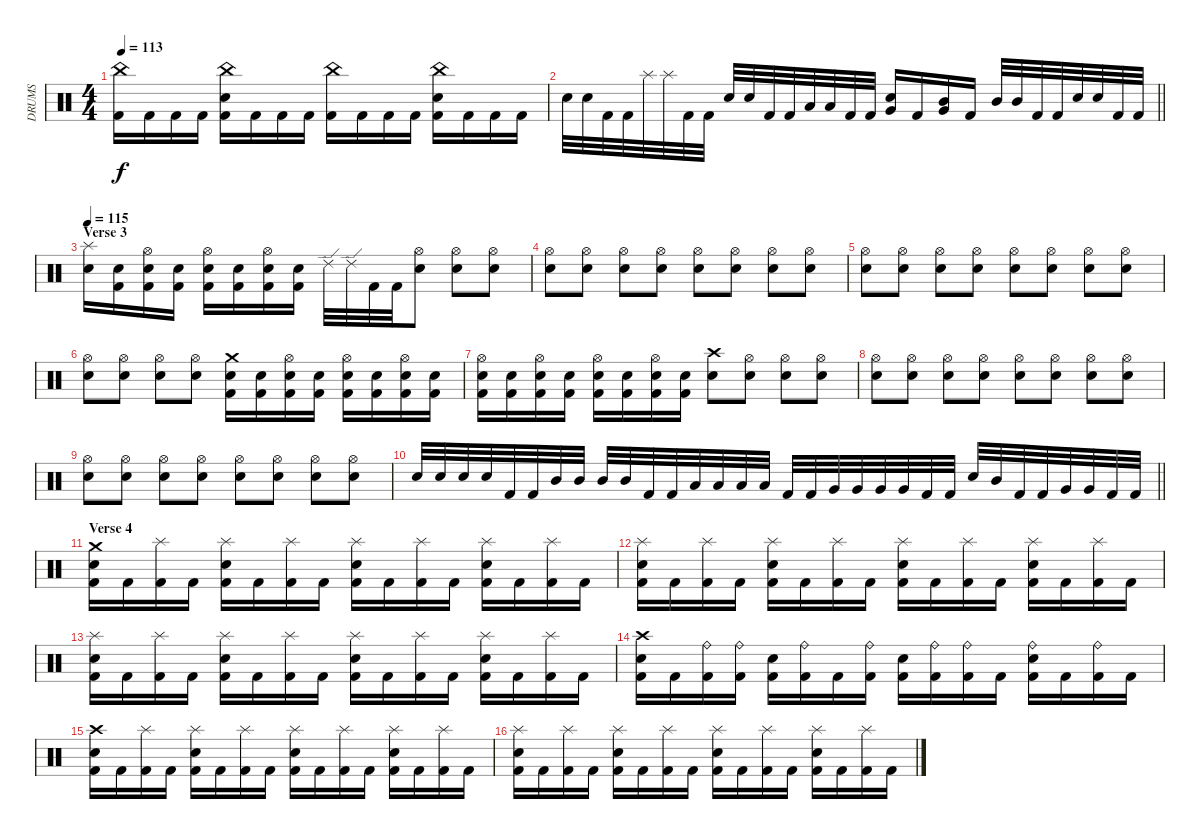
\track ("DRUMS" "DRUMS") {instrument percussion}
\staff {score}
\articulation defaults
\ts (4 4)
\tempo 113
\clef neutral
\ks c
("China (hit)" "Kick (hit) 2").16{dy f} "Kick (hit) 2".16 "Kick (hit) 2".16 "Kick (hit) 2".16 ("China (hit)" "Electric Snare (hit)" "Kick (hit) 2").16 "Kick (hit) 2".16 "Kick (hit) 2".16 "Kick (hit) 2".16 ("China (hit)" "Kick (hit) 2").16 "Kick (hit) 2".16 "Kick (hit) 2".16 "Kick (hit) 2".16 ("China (hit)" "Electric Snare (hit)" "Kick (hit) 2").16 "Kick (hit) 2".16 "Kick (hit) 2".16 "Kick (hit) 2".16 |
\barLineRight lightlight "Electric Snare (hit)".32 "Electric Snare (hit)".32 "Kick (hit) 2".32 "Kick (hit) 2".32 "Splash (hit)".32 "Splash (hit)".32 "Kick (hit) 2".32 "Kick (hit) 2".32 "Electric Snare (hit)".32 "Electric Snare (hit)".32 "Kick (hit) 2".32 "Kick (hit) 2".32 "Low Tom (hit)".32 "Low Tom (hit)".32 "Kick (hit) 2".32 "Kick (hit) 2".32
("Electric Snare (hit)" "Very Low Tom (hit)").16 "Kick (hit) 2".16 ("Mid Tom (hit)" "Very Low Tom (hit)").16 "Kick (hit) 2".16 "Mid Tom (hit)".32 "Mid Tom (hit)".32 "Kick (hit) 2".32 "Kick (hit) 2".32 "Electric Snare (hit)".32 "Electric Snare (hit)".32 "Kick (hit) 2".32 "Kick (hit) 2".32 |
\section ("" "Verse 3")
\tempo 115
("Splash (hit)" "Electric Snare (hit)").16 ("Electric Snare (hit)" "Kick (hit) 2").16 ("Hi-Hat (open)" "Electric Snare (hit)" "Kick (hit) 2").16 ("Electric Snare (hit)" "Kick (hit) 2").16 ("Hi-Hat (open)" "Electric Snare (hit)" "Kick (hit) 2").16 ("Electric Snare (hit)" "Kick (hit) 2").16 ("Hi-Hat (open)" "Electric Snare (hit)" "Kick (hit) 2").16 ("Electric Snare (hit)" "Kick (hit) 2").16 "Ride (edge) 2".32 "Ride (edge) 2".32 "Kick (hit) 2".32 "Kick (hit) 2".32 ("Hi-Hat (open)" "Electric Snare (hit)").8 ("Hi-Hat (open)" "Electric Snare (hit)").8 ("Hi-Hat (open)" "Electric Snare (hit)").8 |
("Hi-Hat (open)" "Electric Snare (hit)").8 ("Hi-Hat (open)" "Electric Snare (hit)").8 ("Hi-Hat (open)" "Electric Snare (hit)").8 ("Hi-Hat (open)" "Electric Snare (hit)").8 ("Hi-Hat (open)" "Electric Snare (hit)").8 ("Hi-Hat (open)" "Electric Snare (hit)").8 ("Hi-Hat (open)" "Electric Snare (hit)").8 ("Hi-Hat (open)" "Electric Snare (hit)").8 |
("Hi-Hat (open)" "Electric Snare (hit)").8 ("Hi-Hat (open)" "Electric Snare (hit)").8 ("Hi-Hat (open)" "Electric Snare (hit)").8 ("Hi-Hat (open)" "Electric Snare (hit)").8 ("Hi-Hat (open)" "Electric Snare (hit)").8 ("Hi-Hat (open)" "Electric Snare (hit)").8 ("Hi-Hat (open)" "Electric Snare (hit)").8 ("Hi-Hat (open)" "Electric Snare (hit)").8 |
("Hi-Hat (open)" "Electric Snare (hit)").8 ("Hi-Hat (open)" "Electric Snare (hit)").8 ("Hi-Hat (open)" "Electric Snare (hit)").8 ("Hi-Hat (open)" "Electric Snare (hit)").8 ("Crash medium (hit)" "Electric Snare (hit)" "Kick (hit) 2").16 ("Electric Snare (hit)" "Kick (hit) 2").16 ("Hi-Hat (open)" "Electric Snare (hit)" "Kick (hit) 2").16 ("Electric Snare (hit)" "Kick (hit) 2").16 ("Hi-Hat (open)" "Electric Snare (hit)" "Kick (hit) 2").16 ("Electric Snare (hit)" "Kick (hit) 2").16 ("Hi-Hat (open)" "Electric Snare (hit)" "Kick (hit) 2").16 ("Electric Snare (hit)" "Kick (hit) 2").16 |
("Hi-Hat (open)" "Electric Snare (hit)" "Kick (hit) 2").16 ("Electric Snare (hit)" "Kick (hit) 2").16 ("Hi-Hat (open)" "Electric Snare (hit)" "Kick (hit) 2").16 ("Electric Snare (hit)" "Kick (hit) 2").16 ("Hi-Hat (open)" "Electric Snare (hit)" "Kick (hit) 2").16 ("Electric Snare (hit)" "Kick (hit) 2").16 ("Hi-Hat (open)" "Electric Snare (hit)" "Kick (hit) 2").16 ("Electric Snare (hit)" "Kick (hit) 2").16 ("Crash high (hit)" "Electric Snare (hit)").8 ("Hi-Hat (open)" "Electric Snare (hit)").8 ("Hi-Hat (open)" "Electric Snare (hit)").8 ("Hi-Hat (open)" "Electric Snare (hit)").8 |
("Hi-Hat (open)" "Electric Snare (hit)").8 ("Hi-Hat (open)" "Electric Snare (hit)").8 ("Hi-Hat (open)" "Electric Snare (hit)").8 ("Hi-Hat (open)" "Electric Snare (hit)").8 ("Hi-Hat (open)" "Electric Snare (hit)").8 ("Hi-Hat (open)" "Electric Snare (hit)").8 ("Hi-Hat (open)" "Electric Snare (hit)").8 ("Hi-Hat (open)" "Electric Snare (hit)").8 |
("Hi-Hat (open)" "Electric Snare (hit)").8 ("Hi-Hat (open)" "Electric Snare (hit)").8 ("Hi-Hat (open)" "Electric Snare (hit)").8 ("Hi-Hat (open)" "Electric Snare (hit)").8 ("Hi-Hat (open)" "Electric Snare (hit)").8 ("Hi-Hat (open)" "Electric Snare (hit)").8 ("Hi-Hat (open)" "Electric Snare (hit)").8 ("Hi-Hat (open)" "Electric Snare (hit)").8 |
\barLineRight lightlight "Electric Snare (hit)".32 "Electric Snare (hit)".32 "Electric Snare (hit)".32 "Electric Snare (hit)".32 "Kick (hit) 2".32 "Kick (hit) 2".32 "Mid Tom (hit)".32 "Mid Tom (hit)".32 "Mid Tom (hit)".32 "Mid Tom (hit)".32 "Kick (hit) 2".32 "Kick (hit) 2".32 "Low Tom (hit)".32 "Low Tom (hit)".32 "Low Tom (hit)".32 "Low Tom (hit)".32 "Kick (hit) 2".32 "Kick (hit) 2".32 "Very Low Tom (hit)".32 "Very Low Tom (hit)".32 "Very Low Tom (hit)".32 "Very Low Tom (hit)".32 "Kick (hit) 2".32 "Kick (hit) 2".32 "Electric Snare (hit)".32 "Mid Tom (hit)".32 "Kick (hit) 2".32 "Kick (hit) 2".32 "Very Low Tom (hit)".32 "Very Low Tom (hit)".32 "Kick (hit) 2".32 "Kick (hit) 2".32
|
\section ("" "Verse 4")
("Crash medium (hit)" "Electric Snare (hit)" "Kick (hit) 2").16 "Kick (hit) 2".16 ("Splash (hit)" "Kick (hit) 2").16 "Kick (hit) 2".16 ("Splash (hit)" "Electric Snare (hit)" "Kick (hit) 2").16 "Kick (hit) 2".16 ("Splash (hit)" "Kick (hit) 2").16 "Kick (hit) 2".16 ("Splash (hit)" "Electric Snare (hit)" "Kick (hit) 2").16 "Kick (hit) 2".16 ("Splash (hit)" "Kick (hit) 2").16 "Kick (hit) 2".16 ("Splash (hit)" "Electric Snare (hit)" "Kick (hit) 2").16 "Kick (hit) 2".16 ("Splash (hit)" "Kick (hit) 2").16 "Kick (hit) 2".16 |
("Splash (hit)" "Electric Snare (hit)" "Kick (hit) 2").16 "Kick (hit) 2".16 ("Splash (hit)" "Kick (hit) 2").16 "Kick (hit) 2".16 ("Splash (hit)" "Electric Snare (hit)" "Kick (hit) 2").16 "Kick (hit) 2".16 ("Splash (hit)" "Kick (hit) 2").16 "Kick (hit) 2".16 ("Splash (hit)" "Electric Snare (hit)" "Kick (hit) 2").16 "Kick (hit) 2".16 ("Splash (hit)" "Kick (hit) 2").16 "Kick (hit) 2".16 ("Splash (hit)" "Electric Snare (hit)" "Kick (hit) 2").16 "Kick (hit) 2".16 ("Splash (hit)" "Kick (hit) 2").16 "Kick (hit) 2".16 |
("Splash (hit)" "Electric Snare (hit)" "Kick (hit) 2").16 "Kick (hit) 2".16 ("Splash (hit)" "Kick (hit) 2").16 "Kick (hit) 2".16 ("Splash (hit)" "Electric Snare (hit)" "Kick (hit) 2").16 "Kick (hit) 2".16 ("Splash (hit)" "Kick (hit) 2").16 "Kick (hit) 2".16 ("Splash (hit)" "Electric Snare (hit)" "Kick (hit) 2").16 "Kick (hit) 2".16 ("Splash (hit)" "Kick (hit) 2").16 "Kick (hit) 2".16 ("Splash (hit)" "Electric Snare (hit)" "Kick (hit) 2").16 "Kick (hit) 2".16 ("Splash (hit)" "Kick (hit) 2").16 "Kick (hit) 2".16 |
("Crash high (hit)" "Electric Snare (hit)" "Kick (hit) 2").16 "Kick (hit) 2".16 ("Ride (bell)" "Kick (hit) 2").16 ("Ride (bell)" "Kick (hit) 2").16 ("Electric Snare (hit)" "Kick (hit) 2").16 ("Ride (bell)" "Kick (hit) 2").16 "Kick (hit) 2".16 ("Ride (bell)" "Kick (hit) 2").16 ("Electric Snare (hit)" "Kick (hit) 2").16 ("Ride (bell)" "Kick (hit) 2").16 ("Ride (bell)" "Kick (hit) 2").16 "Kick (hit) 2".16 ("Ride (bell)" "Electric Snare (hit)" "Kick (hit) 2").16 "Kick (hit) 2".16 ("Ride (bell)" "Kick (hit) 2").16 "Kick (hit) 2".16 |
("Crash high (hit)" "Electric Snare (hit)" "Kick (hit) 2").16 "Kick (hit) 2".16 ("Splash (hit)" "Kick (hit) 2").16 "Kick (hit) 2".16 ("Splash (hit)" "Electric Snare (hit)" "Kick (hit) 2").16 "Kick (hit) 2".16 ("Splash (hit)" "Kick (hit) 2").16 "Kick (hit) 2".16 ("Splash (hit)" "Electric Snare (hit)" "Kick (hit) 2").16 "Kick (hit) 2".16 ("Splash (hit)" "Kick (hit) 2").16 "Kick (hit) 2".16 ("Splash (hit)" "Electric Snare (hit)" "Kick (hit) 2").16 "Kick (hit) 2".16 ("Splash (hit)" "Kick (hit) 2").16 "Kick (hit) 2".16 |
("Splash (hit)" "Electric Snare (hit)" "Kick (hit) 2").16 "Kick (hit) 2".16 ("Splash (hit)" "Kick (hit) 2").16 "Kick (hit) 2".16 ("Splash (hit)" "Electric Snare (hit)" "Kick (hit) 2").16 "Kick (hit) 2".16 ("Splash (hit)" "Kick (hit) 2").16 "Kick (hit) 2".16 ("Splash (hit)" "Electric Snare (hit)" "Kick (hit) 2").16 "Kick (hit) 2".16 ("Splash (hit)" "Kick (hit) 2").16 "Kick (hit) 2".16 ("Splash (hit)" "Electric Snare (hit)" "Kick (hit) 2").16 "Kick (hit) 2".16 ("Splash (hit)" "Kick (hit) 2").16 "Kick (hit) 2".16
